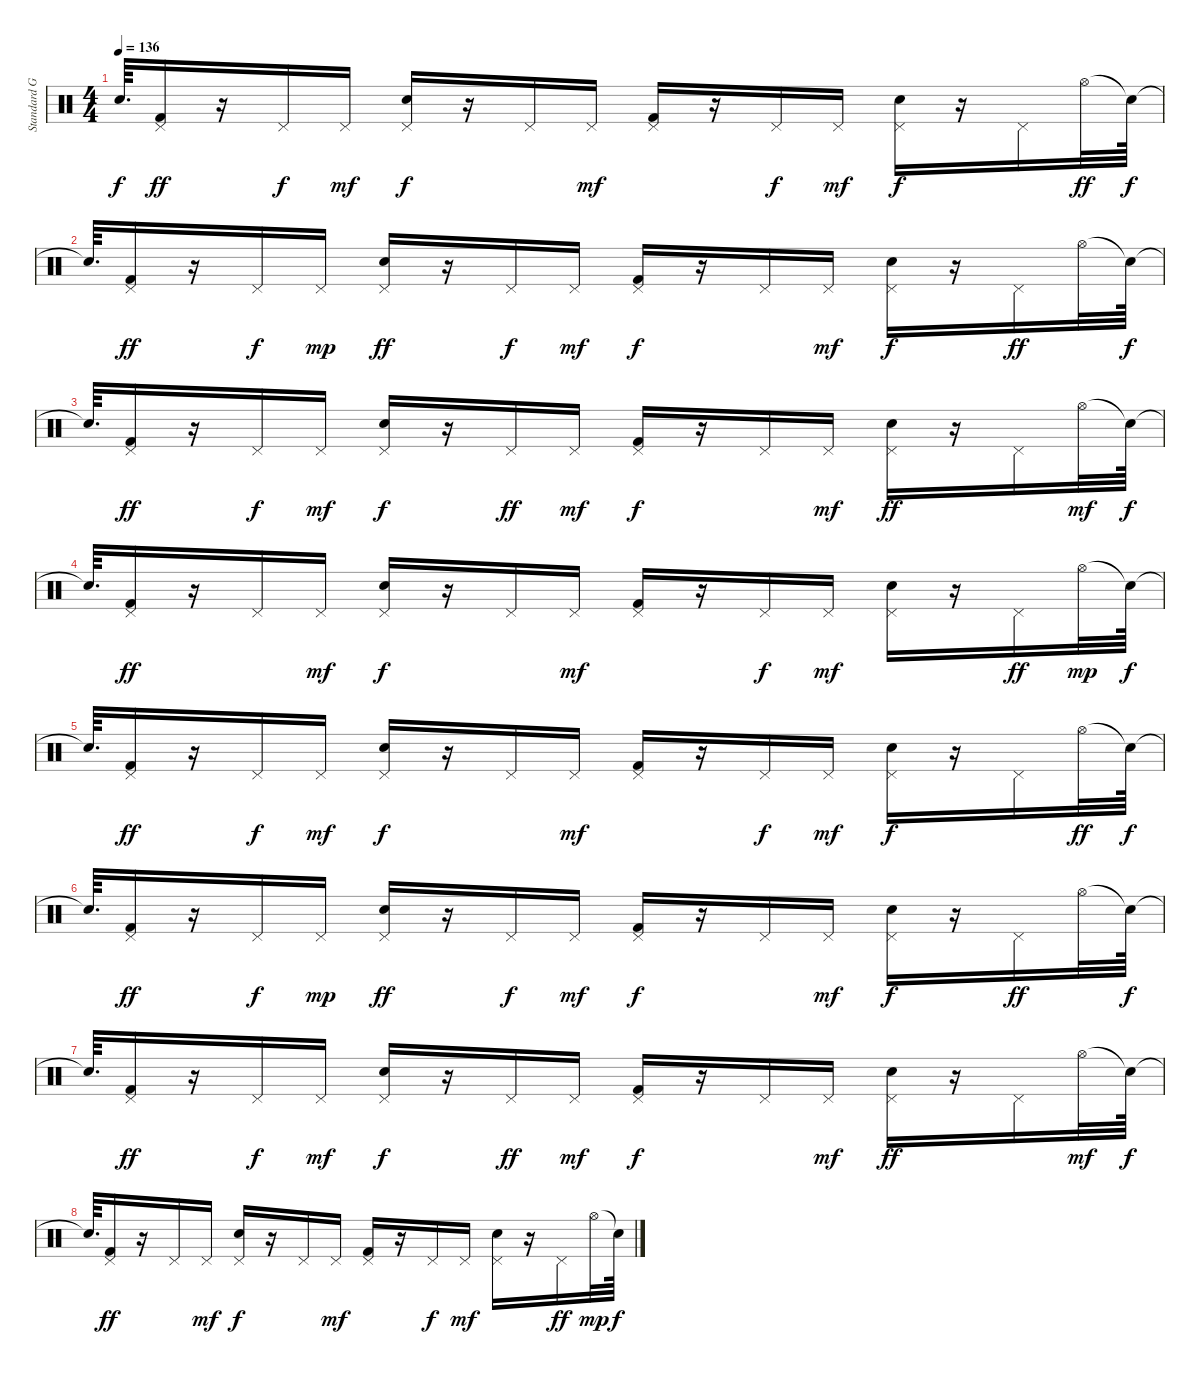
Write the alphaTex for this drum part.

\track ("Standard GM Drum Kit" "Standard G") {instrument percussion}
\staff {score}
\articulation defaults
\ts (4 4)
\tempo 136
\clef neutral
\ks c "Snare (hit)"{t}.64{d dy f}
("Pedal Hi-Hat (hit)" "Kick (hit) 2").16{dy ff} r.16 "Pedal Hi-Hat (hit)".16{dy f} "Pedal Hi-Hat (hit)".16{dy mf} ("Pedal Hi-Hat (hit)" "Electric Snare (hit)").16{dy f} r.16 "Pedal Hi-Hat (hit)".16 "Pedal Hi-Hat (hit)".16{dy mf} ("Pedal Hi-Hat (hit)" "Kick (hit) 2").16 r.16 "Pedal Hi-Hat (hit)".16{dy f} "Pedal Hi-Hat (hit)".16{dy mf} ("Pedal Hi-Hat (hit)" "Electric Snare (hit)").16{dy f} r.16 "Pedal Hi-Hat (hit)".16 "Hi-Hat (open)".32{dy ff} "Snare (hit)"{t}.64{dy f} |
"Snare (hit)"{t}.64{d} ("Pedal Hi-Hat (hit)" "Kick (hit) 2").16{dy ff} r.16 "Pedal Hi-Hat (hit)".16{dy f} "Pedal Hi-Hat (hit)".16{dy mp} ("Pedal Hi-Hat (hit)" "Electric Snare (hit)").16{dy ff} r.16 "Pedal Hi-Hat (hit)".16{dy f} "Pedal Hi-Hat (hit)".16{dy mf} ("Kick (hit) 2" "Pedal Hi-Hat (hit)").16{dy f} r.16 "Pedal Hi-Hat (hit)".16 "Pedal Hi-Hat (hit)".16{dy mf} ("Electric Snare (hit)" "Pedal Hi-Hat (hit)").16{dy f} r.16 "Pedal Hi-Hat (hit)".16{dy ff} "Hi-Hat (open)".32 "Snare (hit)"{t}.64{dy f} |
"Snare (hit)"{t}.64{d} ("Pedal Hi-Hat (hit)" "Kick (hit) 2").16{dy ff} r.16 "Pedal Hi-Hat (hit)".16{dy f} "Pedal Hi-Hat (hit)".16{dy mf} ("Pedal Hi-Hat (hit)" "Electric Snare (hit)").16{dy f} r.16 "Pedal Hi-Hat (hit)".16{dy ff} "Pedal Hi-Hat (hit)".16{dy mf} ("Kick (hit) 2" "Pedal Hi-Hat (hit)").16{dy f} r.16 "Pedal Hi-Hat (hit)".16 "Pedal Hi-Hat (hit)".16{dy mf} ("Electric Snare (hit)" "Pedal Hi-Hat (hit)").16{dy ff} r.16 "Pedal Hi-Hat (hit)".16 "Hi-Hat (open)".32{dy mf} "Snare (hit)"{t}.64{dy f} |
"Snare (hit)"{t}.64{d} ("Pedal Hi-Hat (hit)" "Kick (hit) 2").16{dy ff} r.16 "Pedal Hi-Hat (hit)".16 "Pedal Hi-Hat (hit)".16{dy mf} ("Pedal Hi-Hat (hit)" "Electric Snare (hit)").16{dy f} r.16 "Pedal Hi-Hat (hit)".16 "Pedal Hi-Hat (hit)".16{dy mf} ("Kick (hit) 2" "Pedal Hi-Hat (hit)").16 r.16 "Pedal Hi-Hat (hit)".16{dy f} "Pedal Hi-Hat (hit)".16{dy mf} ("Electric Snare (hit)" "Pedal Hi-Hat (hit)").16 r.16 "Pedal Hi-Hat (hit)".16{dy ff} "Hi-Hat (open)".32{dy mp} "Snare (hit)"{t}.64{dy f} |
"Snare (hit)"{t}.64{d} ("Pedal Hi-Hat (hit)" "Kick (hit) 2").16{dy ff} r.16 "Pedal Hi-Hat (hit)".16{dy f} "Pedal Hi-Hat (hit)".16{dy mf} ("Pedal Hi-Hat (hit)" "Electric Snare (hit)").16{dy f} r.16 "Pedal Hi-Hat (hit)".16 "Pedal Hi-Hat (hit)".16{dy mf} ("Pedal Hi-Hat (hit)" "Kick (hit) 2").16 r.16 "Pedal Hi-Hat (hit)".16{dy f} "Pedal Hi-Hat (hit)".16{dy mf} ("Pedal Hi-Hat (hit)" "Electric Snare (hit)").16{dy f} r.16 "Pedal Hi-Hat (hit)".16 "Hi-Hat (open)".32{dy ff} "Snare (hit)"{t}.64{dy f} |
"Snare (hit)"{t}.64{d} ("Pedal Hi-Hat (hit)" "Kick (hit) 2").16{dy ff} r.16 "Pedal Hi-Hat (hit)".16{dy f} "Pedal Hi-Hat (hit)".16{dy mp} ("Pedal Hi-Hat (hit)" "Electric Snare (hit)").16{dy ff} r.16 "Pedal Hi-Hat (hit)".16{dy f} "Pedal Hi-Hat (hit)".16{dy mf} ("Kick (hit) 2" "Pedal Hi-Hat (hit)").16{dy f} r.16 "Pedal Hi-Hat (hit)".16 "Pedal Hi-Hat (hit)".16{dy mf} ("Electric Snare (hit)" "Pedal Hi-Hat (hit)").16{dy f} r.16 "Pedal Hi-Hat (hit)".16{dy ff} "Hi-Hat (open)".32 "Snare (hit)"{t}.64{dy f} |
"Snare (hit)"{t}.64{d} ("Pedal Hi-Hat (hit)" "Kick (hit) 2").16{dy ff} r.16 "Pedal Hi-Hat (hit)".16{dy f} "Pedal Hi-Hat (hit)".16{dy mf} ("Pedal Hi-Hat (hit)" "Electric Snare (hit)").16{dy f} r.16 "Pedal Hi-Hat (hit)".16{dy ff} "Pedal Hi-Hat (hit)".16{dy mf} ("Kick (hit) 2" "Pedal Hi-Hat (hit)").16{dy f} r.16 "Pedal Hi-Hat (hit)".16 "Pedal Hi-Hat (hit)".16{dy mf} ("Electric Snare (hit)" "Pedal Hi-Hat (hit)").16{dy ff} r.16 "Pedal Hi-Hat (hit)".16 "Hi-Hat (open)".32{dy mf} "Snare (hit)"{t}.64{dy f} |
"Snare (hit)"{t}.64{d} ("Pedal Hi-Hat (hit)" "Kick (hit) 2").16{dy ff} r.16 "Pedal Hi-Hat (hit)".16 "Pedal Hi-Hat (hit)".16{dy mf} ("Pedal Hi-Hat (hit)" "Electric Snare (hit)").16{dy f} r.16 "Pedal Hi-Hat (hit)".16 "Pedal Hi-Hat (hit)".16{dy mf} ("Kick (hit) 2" "Pedal Hi-Hat (hit)").16 r.16 "Pedal Hi-Hat (hit)".16{dy f} "Pedal Hi-Hat (hit)".16{dy mf} ("Electric Snare (hit)" "Pedal Hi-Hat (hit)").16 r.16 "Pedal Hi-Hat (hit)".16{dy ff} "Hi-Hat (open)".32{dy mp} "Snare (hit)"{t}.64{dy f}
